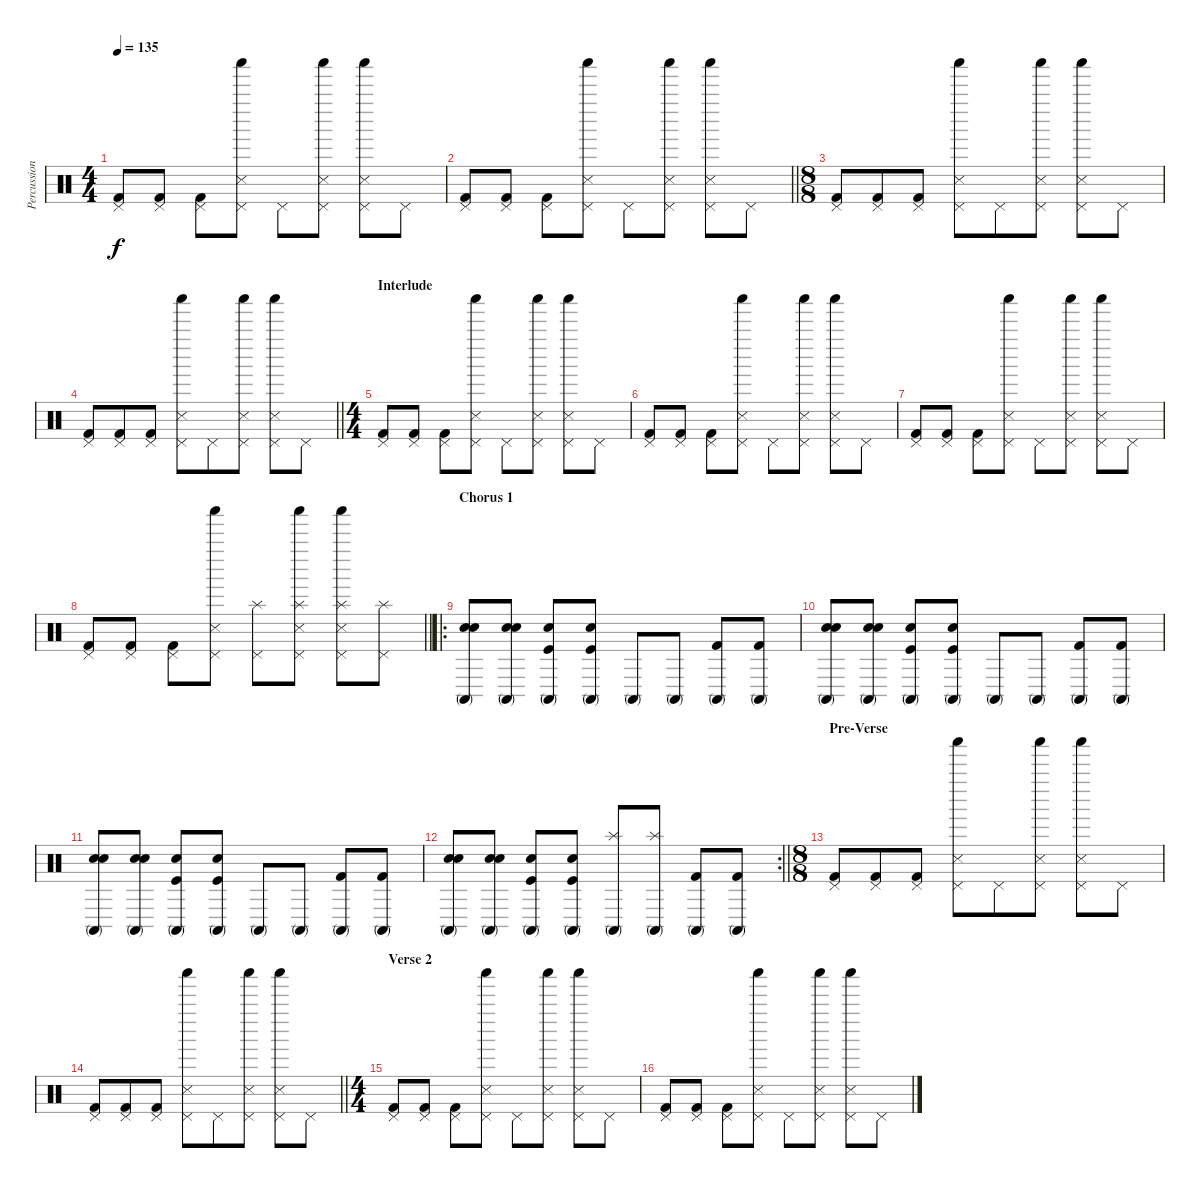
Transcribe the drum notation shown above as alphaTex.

\track ("Percussion" "Percussion") {instrument percussion}
\staff {score}
\articulation defaults
\ts (4 4)
\tempo 135
\clef neutral
\ks c
("Kick (hit) 2" "Pedal Hi-Hat (hit)").8{dy f} ("Kick (hit) 2" "Pedal Hi-Hat (hit)").8 ("Kick (hit) 2" "Pedal Hi-Hat (hit)").8 ("Metronome (hit)" "Shaker (hit)" "Pedal Hi-Hat (hit)").8 "Pedal Hi-Hat (hit)".8 ("Metronome (hit)" "Shaker (hit)" "Pedal Hi-Hat (hit)").8 ("Metronome (hit)" "Shaker (hit)" "Pedal Hi-Hat (hit)").8 "Pedal Hi-Hat (hit)".8 |
\barLineRight lightlight
("Kick (hit) 2" "Pedal Hi-Hat (hit)").8 ("Kick (hit) 2" "Pedal Hi-Hat (hit)").8 ("Kick (hit) 2" "Pedal Hi-Hat (hit)").8 ("Metronome (hit)" "Shaker (hit)" "Pedal Hi-Hat (hit)").8 "Pedal Hi-Hat (hit)".8 ("Metronome (hit)" "Shaker (hit)" "Pedal Hi-Hat (hit)").8 ("Metronome (hit)" "Shaker (hit)" "Pedal Hi-Hat (hit)").8 "Pedal Hi-Hat (hit)".8 |
\ts (8 8)
("Kick (hit) 2" "Pedal Hi-Hat (hit)").8 ("Kick (hit) 2" "Pedal Hi-Hat (hit)").8 ("Kick (hit) 2" "Pedal Hi-Hat (hit)").8 ("Metronome (hit)" "Shaker (hit)" "Pedal Hi-Hat (hit)").8 "Pedal Hi-Hat (hit)".8 ("Metronome (hit)" "Shaker (hit)" "Pedal Hi-Hat (hit)").8 ("Metronome (hit)" "Shaker (hit)" "Pedal Hi-Hat (hit)").8 "Pedal Hi-Hat (hit)".8 |
\barLineRight lightlight
("Kick (hit) 2" "Pedal Hi-Hat (hit)").8 ("Kick (hit) 2" "Pedal Hi-Hat (hit)").8 ("Kick (hit) 2" "Pedal Hi-Hat (hit)").8 ("Metronome (hit)" "Shaker (hit)" "Pedal Hi-Hat (hit)").8 "Pedal Hi-Hat (hit)".8 ("Metronome (hit)" "Shaker (hit)" "Pedal Hi-Hat (hit)").8 ("Metronome (hit)" "Shaker (hit)" "Pedal Hi-Hat (hit)").8 "Pedal Hi-Hat (hit)".8 |
\ts (4 4)
\section ("" "Interlude")
("Kick (hit) 2" "Pedal Hi-Hat (hit)").8 ("Kick (hit) 2" "Pedal Hi-Hat (hit)").8 ("Kick (hit) 2" "Pedal Hi-Hat (hit)").8 ("Metronome (hit)" "Shaker (hit)" "Pedal Hi-Hat (hit)").8 "Pedal Hi-Hat (hit)".8 ("Metronome (hit)" "Shaker (hit)" "Pedal Hi-Hat (hit)").8 ("Metronome (hit)" "Shaker (hit)" "Pedal Hi-Hat (hit)").8 "Pedal Hi-Hat (hit)".8 |
("Kick (hit) 2" "Pedal Hi-Hat (hit)").8 ("Kick (hit) 2" "Pedal Hi-Hat (hit)").8 ("Kick (hit) 2" "Pedal Hi-Hat (hit)").8 ("Metronome (hit)" "Shaker (hit)" "Pedal Hi-Hat (hit)").8 "Pedal Hi-Hat (hit)".8 ("Metronome (hit)" "Shaker (hit)" "Pedal Hi-Hat (hit)").8 ("Metronome (hit)" "Shaker (hit)" "Pedal Hi-Hat (hit)").8 "Pedal Hi-Hat (hit)".8 |
("Kick (hit) 2" "Pedal Hi-Hat (hit)").8 ("Kick (hit) 2" "Pedal Hi-Hat (hit)").8 ("Kick (hit) 2" "Pedal Hi-Hat (hit)").8 ("Metronome (hit)" "Shaker (hit)" "Pedal Hi-Hat (hit)").8 "Pedal Hi-Hat (hit)".8 ("Metronome (hit)" "Shaker (hit)" "Pedal Hi-Hat (hit)").8 ("Metronome (hit)" "Shaker (hit)" "Pedal Hi-Hat (hit)").8 "Pedal Hi-Hat (hit)".8 |
\barLineRight lightlight
("Kick (hit) 2" "Pedal Hi-Hat (hit)").8 ("Kick (hit) 2" "Pedal Hi-Hat (hit)").8 ("Kick (hit) 2" "Pedal Hi-Hat (hit)").8 ("Metronome (hit)" "Shaker (hit)" "Pedal Hi-Hat (hit)").8 ("Splash (hit)" "Pedal Hi-Hat (hit)").8 ("Metronome (hit)" "Shaker (hit)" "Splash (hit)" "Pedal Hi-Hat (hit)").8 ("Metronome (hit)" "Shaker (hit)" "Splash (hit)" "Pedal Hi-Hat (hit)").8 ("Splash (hit)" "Pedal Hi-Hat (hit)").8 |
\ro
\section ("" "Chorus 1")
("Electric Snare (hit)" "Electric Snare (hit)" "Conga high (mute)").8 ("Electric Snare (hit)" "Electric Snare (hit)" "Conga high (mute)").8 ("Kick (hit)" "Snare (hit) 2" "Conga high (mute)").8 ("Kick (hit)" "Snare (hit) 2" "Conga high (mute)").8 "Conga high (mute)".8 "Conga high (mute)".8 ("Kick (hit) 2" "Conga high (mute)").8 ("Kick (hit) 2" "Conga high (mute)").8 |
("Electric Snare (hit)" "Electric Snare (hit)" "Conga high (mute)").8 ("Electric Snare (hit)" "Electric Snare (hit)" "Conga high (mute)").8 ("Kick (hit)" "Snare (hit) 2" "Conga high (mute)").8 ("Kick (hit)" "Snare (hit) 2" "Conga high (mute)").8 "Conga high (mute)".8 "Conga high (mute)".8 ("Kick (hit) 2" "Conga high (mute)").8 ("Kick (hit) 2" "Conga high (mute)").8 |
("Electric Snare (hit)" "Electric Snare (hit)" "Conga high (mute)").8 ("Electric Snare (hit)" "Electric Snare (hit)" "Conga high (mute)").8 ("Kick (hit)" "Snare (hit) 2" "Conga high (mute)").8 ("Kick (hit)" "Snare (hit) 2" "Conga high (mute)").8 "Conga high (mute)".8 "Conga high (mute)".8 ("Kick (hit) 2" "Conga high (mute)").8 ("Kick (hit) 2" "Conga high (mute)").8 |
\rc 2
\barLineRight lightlight
("Electric Snare (hit)" "Electric Snare (hit)" "Conga high (mute)").8 ("Electric Snare (hit)" "Electric Snare (hit)" "Conga high (mute)").8 ("Kick (hit)" "Snare (hit) 2" "Conga high (mute)").8 ("Kick (hit)" "Snare (hit) 2" "Conga high (mute)").8 ("Splash (hit)" "Conga high (mute)").8 ("Splash (hit)" "Conga high (mute)").8 ("Kick (hit) 2" "Conga high (mute)").8 ("Kick (hit) 2" "Conga high (mute)").8 |
\ts (8 8)
\section ("" "Pre-Verse")
("Kick (hit) 2" "Pedal Hi-Hat (hit)").8 ("Kick (hit) 2" "Pedal Hi-Hat (hit)").8 ("Kick (hit) 2" "Pedal Hi-Hat (hit)").8 ("Metronome (hit)" "Shaker (hit)" "Pedal Hi-Hat (hit)").8 "Pedal Hi-Hat (hit)".8 ("Metronome (hit)" "Shaker (hit)" "Pedal Hi-Hat (hit)").8 ("Metronome (hit)" "Shaker (hit)" "Pedal Hi-Hat (hit)").8 "Pedal Hi-Hat (hit)".8 |
\barLineRight lightlight
("Kick (hit) 2" "Pedal Hi-Hat (hit)").8 ("Kick (hit) 2" "Pedal Hi-Hat (hit)").8 ("Kick (hit) 2" "Pedal Hi-Hat (hit)").8 ("Metronome (hit)" "Shaker (hit)" "Pedal Hi-Hat (hit)").8 "Pedal Hi-Hat (hit)".8 ("Metronome (hit)" "Shaker (hit)" "Pedal Hi-Hat (hit)").8 ("Metronome (hit)" "Shaker (hit)" "Pedal Hi-Hat (hit)").8 "Pedal Hi-Hat (hit)".8 |
\ts (4 4)
\section ("" "Verse 2")
("Kick (hit) 2" "Pedal Hi-Hat (hit)").8 ("Kick (hit) 2" "Pedal Hi-Hat (hit)").8 ("Kick (hit) 2" "Pedal Hi-Hat (hit)").8 ("Metronome (hit)" "Shaker (hit)" "Pedal Hi-Hat (hit)").8 "Pedal Hi-Hat (hit)".8 ("Metronome (hit)" "Shaker (hit)" "Pedal Hi-Hat (hit)").8 ("Metronome (hit)" "Shaker (hit)" "Pedal Hi-Hat (hit)").8 "Pedal Hi-Hat (hit)".8 |
("Kick (hit) 2" "Pedal Hi-Hat (hit)").8 ("Kick (hit) 2" "Pedal Hi-Hat (hit)").8 ("Kick (hit) 2" "Pedal Hi-Hat (hit)").8 ("Metronome (hit)" "Shaker (hit)" "Pedal Hi-Hat (hit)").8 "Pedal Hi-Hat (hit)".8 ("Metronome (hit)" "Shaker (hit)" "Pedal Hi-Hat (hit)").8 ("Metronome (hit)" "Shaker (hit)" "Pedal Hi-Hat (hit)").8 "Pedal Hi-Hat (hit)".8
